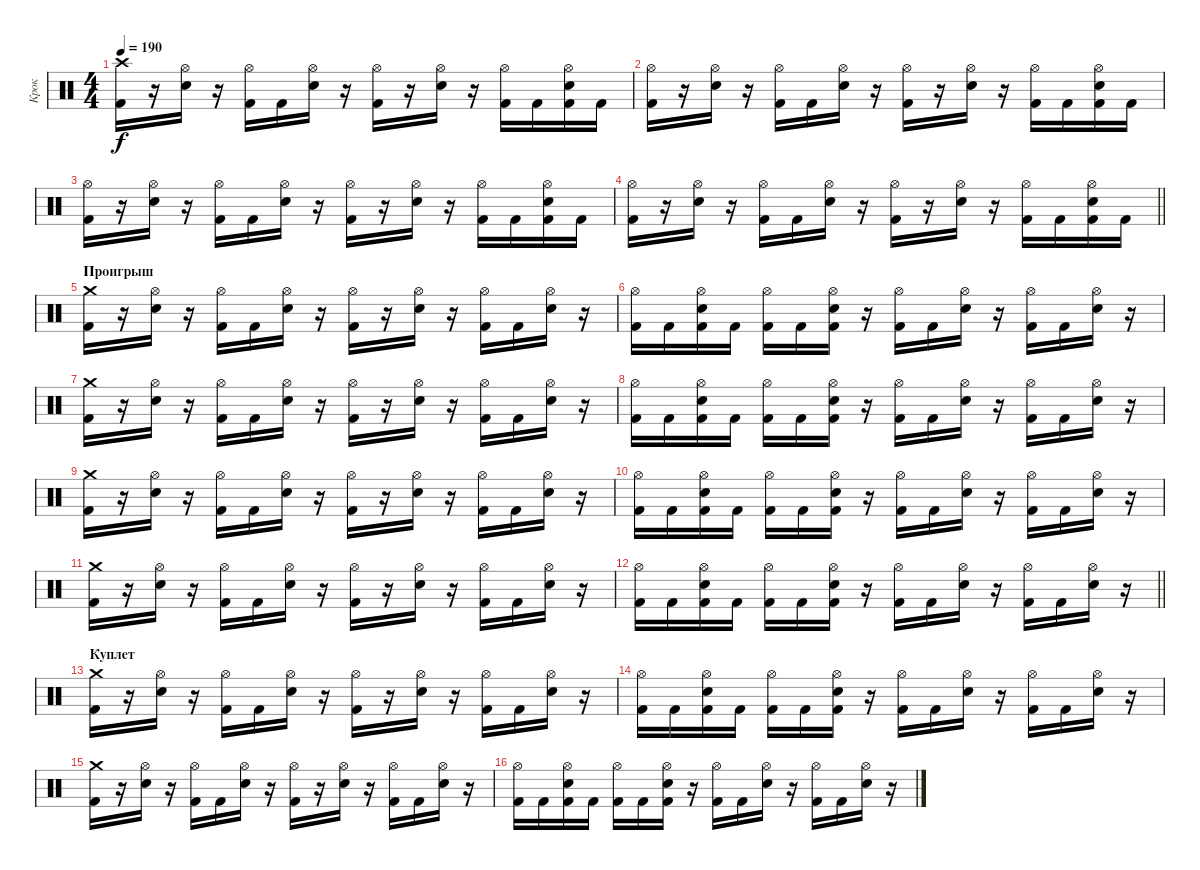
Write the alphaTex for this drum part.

\track ("Крок" "Крок") {instrument percussion}
\staff {score}
\articulation defaults
\ts (4 4)
\tempo 190
\clef neutral
\ks c
("Crash high (hit)" "Kick (hit) 2").16{dy f} r.16 ("Hi-Hat (open)" "Electric Snare (hit)").16 r.16 ("Hi-Hat (open)" "Kick (hit) 2").16 "Kick (hit) 2".16 ("Hi-Hat (open)" "Electric Snare (hit)").16 r.16 ("Hi-Hat (open)" "Kick (hit) 2").16 r.16 ("Hi-Hat (open)" "Electric Snare (hit)").16 r.16 ("Hi-Hat (open)" "Kick (hit) 2").16 "Kick (hit) 2".16 ("Hi-Hat (open)" "Electric Snare (hit)" "Kick (hit) 2").16 "Kick (hit) 2".16 |
("Hi-Hat (open)" "Kick (hit) 2").16 r.16 ("Hi-Hat (open)" "Electric Snare (hit)").16 r.16 ("Hi-Hat (open)" "Kick (hit) 2").16 "Kick (hit) 2".16 ("Hi-Hat (open)" "Electric Snare (hit)").16 r.16 ("Hi-Hat (open)" "Kick (hit) 2").16 r.16 ("Hi-Hat (open)" "Electric Snare (hit)").16 r.16 ("Hi-Hat (open)" "Kick (hit) 2").16 "Kick (hit) 2".16 ("Hi-Hat (open)" "Electric Snare (hit)" "Kick (hit) 2").16 "Kick (hit) 2".16 |
("Hi-Hat (open)" "Kick (hit) 2").16 r.16 ("Hi-Hat (open)" "Electric Snare (hit)").16 r.16 ("Hi-Hat (open)" "Kick (hit) 2").16 "Kick (hit) 2".16 ("Hi-Hat (open)" "Electric Snare (hit)").16 r.16 ("Hi-Hat (open)" "Kick (hit) 2").16 r.16 ("Hi-Hat (open)" "Electric Snare (hit)").16 r.16 ("Hi-Hat (open)" "Kick (hit) 2").16 "Kick (hit) 2".16 ("Hi-Hat (open)" "Electric Snare (hit)" "Kick (hit) 2").16 "Kick (hit) 2".16 |
\barLineRight lightlight
("Hi-Hat (open)" "Kick (hit) 2").16 r.16 ("Hi-Hat (open)" "Electric Snare (hit)").16 r.16 ("Hi-Hat (open)" "Kick (hit) 2").16 "Kick (hit) 2".16 ("Hi-Hat (open)" "Electric Snare (hit)").16 r.16 ("Hi-Hat (open)" "Kick (hit) 2").16 r.16 ("Hi-Hat (open)" "Electric Snare (hit)").16 r.16 ("Hi-Hat (open)" "Kick (hit) 2").16 "Kick (hit) 2".16 ("Hi-Hat (open)" "Electric Snare (hit)" "Kick (hit) 2").16 "Kick (hit) 2".16 |
\section ("" "Проигрыш")
("Crash medium (hit)" "Kick (hit) 2").16 r.16 ("Hi-Hat (open)" "Electric Snare (hit)").16 r.16 ("Hi-Hat (open)" "Kick (hit) 2").16 "Kick (hit) 2".16 ("Hi-Hat (open)" "Electric Snare (hit)").16 r.16 ("Hi-Hat (open)" "Kick (hit) 2").16 r.16 ("Hi-Hat (open)" "Electric Snare (hit)").16 r.16 ("Hi-Hat (open)" "Kick (hit) 2").16 "Kick (hit) 2".16 ("Hi-Hat (open)" "Electric Snare (hit)").16 r.16 |
("Hi-Hat (open)" "Kick (hit) 2").16 "Kick (hit) 2".16 ("Hi-Hat (open)" "Electric Snare (hit)" "Kick (hit) 2").16 "Kick (hit) 2".16 ("Hi-Hat (open)" "Kick (hit) 2").16 "Kick (hit) 2".16 ("Hi-Hat (open)" "Electric Snare (hit)" "Kick (hit) 2").16 r.16 ("Hi-Hat (open)" "Kick (hit) 2").16 "Kick (hit) 2".16 ("Hi-Hat (open)" "Electric Snare (hit)").16 r.16 ("Hi-Hat (open)" "Kick (hit) 2").16 "Kick (hit) 2".16 ("Hi-Hat (open)" "Electric Snare (hit)").16 r.16 |
("Crash medium (hit)" "Kick (hit) 2").16 r.16 ("Hi-Hat (open)" "Electric Snare (hit)").16 r.16 ("Hi-Hat (open)" "Kick (hit) 2").16 "Kick (hit) 2".16 ("Hi-Hat (open)" "Electric Snare (hit)").16 r.16 ("Hi-Hat (open)" "Kick (hit) 2").16 r.16 ("Hi-Hat (open)" "Electric Snare (hit)").16 r.16 ("Hi-Hat (open)" "Kick (hit) 2").16 "Kick (hit) 2".16 ("Hi-Hat (open)" "Electric Snare (hit)").16 r.16 |
("Hi-Hat (open)" "Kick (hit) 2").16 "Kick (hit) 2".16 ("Hi-Hat (open)" "Electric Snare (hit)" "Kick (hit) 2").16 "Kick (hit) 2".16 ("Hi-Hat (open)" "Kick (hit) 2").16 "Kick (hit) 2".16 ("Hi-Hat (open)" "Electric Snare (hit)" "Kick (hit) 2").16 r.16 ("Hi-Hat (open)" "Kick (hit) 2").16 "Kick (hit) 2".16 ("Hi-Hat (open)" "Electric Snare (hit)").16 r.16 ("Hi-Hat (open)" "Kick (hit) 2").16 "Kick (hit) 2".16 ("Hi-Hat (open)" "Electric Snare (hit)").16 r.16 |
("Crash medium (hit)" "Kick (hit) 2").16 r.16 ("Hi-Hat (open)" "Electric Snare (hit)").16 r.16 ("Hi-Hat (open)" "Kick (hit) 2").16 "Kick (hit) 2".16 ("Hi-Hat (open)" "Electric Snare (hit)").16 r.16 ("Hi-Hat (open)" "Kick (hit) 2").16 r.16 ("Hi-Hat (open)" "Electric Snare (hit)").16 r.16 ("Hi-Hat (open)" "Kick (hit) 2").16 "Kick (hit) 2".16 ("Hi-Hat (open)" "Electric Snare (hit)").16 r.16 |
("Hi-Hat (open)" "Kick (hit) 2").16 "Kick (hit) 2".16 ("Hi-Hat (open)" "Electric Snare (hit)" "Kick (hit) 2").16 "Kick (hit) 2".16 ("Hi-Hat (open)" "Kick (hit) 2").16 "Kick (hit) 2".16 ("Hi-Hat (open)" "Electric Snare (hit)" "Kick (hit) 2").16 r.16 ("Hi-Hat (open)" "Kick (hit) 2").16 "Kick (hit) 2".16 ("Hi-Hat (open)" "Electric Snare (hit)").16 r.16 ("Hi-Hat (open)" "Kick (hit) 2").16 "Kick (hit) 2".16 ("Hi-Hat (open)" "Electric Snare (hit)").16 r.16 |
("Crash medium (hit)" "Kick (hit) 2").16 r.16 ("Hi-Hat (open)" "Electric Snare (hit)").16 r.16 ("Hi-Hat (open)" "Kick (hit) 2").16 "Kick (hit) 2".16 ("Hi-Hat (open)" "Electric Snare (hit)").16 r.16 ("Hi-Hat (open)" "Kick (hit) 2").16 r.16 ("Hi-Hat (open)" "Electric Snare (hit)").16 r.16 ("Hi-Hat (open)" "Kick (hit) 2").16 "Kick (hit) 2".16 ("Hi-Hat (open)" "Electric Snare (hit)").16 r.16 |
\barLineRight lightlight
("Hi-Hat (open)" "Kick (hit) 2").16 "Kick (hit) 2".16 ("Hi-Hat (open)" "Electric Snare (hit)" "Kick (hit) 2").16 "Kick (hit) 2".16 ("Hi-Hat (open)" "Kick (hit) 2").16 "Kick (hit) 2".16 ("Hi-Hat (open)" "Electric Snare (hit)" "Kick (hit) 2").16 r.16 ("Hi-Hat (open)" "Kick (hit) 2").16 "Kick (hit) 2".16 ("Hi-Hat (open)" "Electric Snare (hit)").16 r.16 ("Hi-Hat (open)" "Kick (hit) 2").16 "Kick (hit) 2".16 ("Hi-Hat (open)" "Electric Snare (hit)").16 r.16 |
\section ("" "Куплет")
("Crash medium (hit)" "Kick (hit) 2").16 r.16 ("Hi-Hat (open)" "Electric Snare (hit)").16 r.16 ("Hi-Hat (open)" "Kick (hit) 2").16 "Kick (hit) 2".16 ("Hi-Hat (open)" "Electric Snare (hit)").16 r.16 ("Hi-Hat (open)" "Kick (hit) 2").16 r.16 ("Hi-Hat (open)" "Electric Snare (hit)").16 r.16 ("Hi-Hat (open)" "Kick (hit) 2").16 "Kick (hit) 2".16 ("Hi-Hat (open)" "Electric Snare (hit)").16 r.16 |
("Hi-Hat (open)" "Kick (hit) 2").16 "Kick (hit) 2".16 ("Hi-Hat (open)" "Electric Snare (hit)" "Kick (hit) 2").16 "Kick (hit) 2".16 ("Hi-Hat (open)" "Kick (hit) 2").16 "Kick (hit) 2".16 ("Hi-Hat (open)" "Electric Snare (hit)" "Kick (hit) 2").16 r.16 ("Hi-Hat (open)" "Kick (hit) 2").16 "Kick (hit) 2".16 ("Hi-Hat (open)" "Electric Snare (hit)").16 r.16 ("Hi-Hat (open)" "Kick (hit) 2").16 "Kick (hit) 2".16 ("Hi-Hat (open)" "Electric Snare (hit)").16 r.16 |
("Crash medium (hit)" "Kick (hit) 2").16 r.16 ("Hi-Hat (open)" "Electric Snare (hit)").16 r.16 ("Hi-Hat (open)" "Kick (hit) 2").16 "Kick (hit) 2".16 ("Hi-Hat (open)" "Electric Snare (hit)").16 r.16 ("Hi-Hat (open)" "Kick (hit) 2").16 r.16 ("Hi-Hat (open)" "Electric Snare (hit)").16 r.16 ("Hi-Hat (open)" "Kick (hit) 2").16 "Kick (hit) 2".16 ("Hi-Hat (open)" "Electric Snare (hit)").16 r.16 |
("Hi-Hat (open)" "Kick (hit) 2").16 "Kick (hit) 2".16 ("Hi-Hat (open)" "Electric Snare (hit)" "Kick (hit) 2").16 "Kick (hit) 2".16 ("Hi-Hat (open)" "Kick (hit) 2").16 "Kick (hit) 2".16 ("Hi-Hat (open)" "Electric Snare (hit)" "Kick (hit) 2").16 r.16 ("Hi-Hat (open)" "Kick (hit) 2").16 "Kick (hit) 2".16 ("Hi-Hat (open)" "Electric Snare (hit)").16 r.16 ("Hi-Hat (open)" "Kick (hit) 2").16 "Kick (hit) 2".16 ("Hi-Hat (open)" "Electric Snare (hit)").16 r.16
